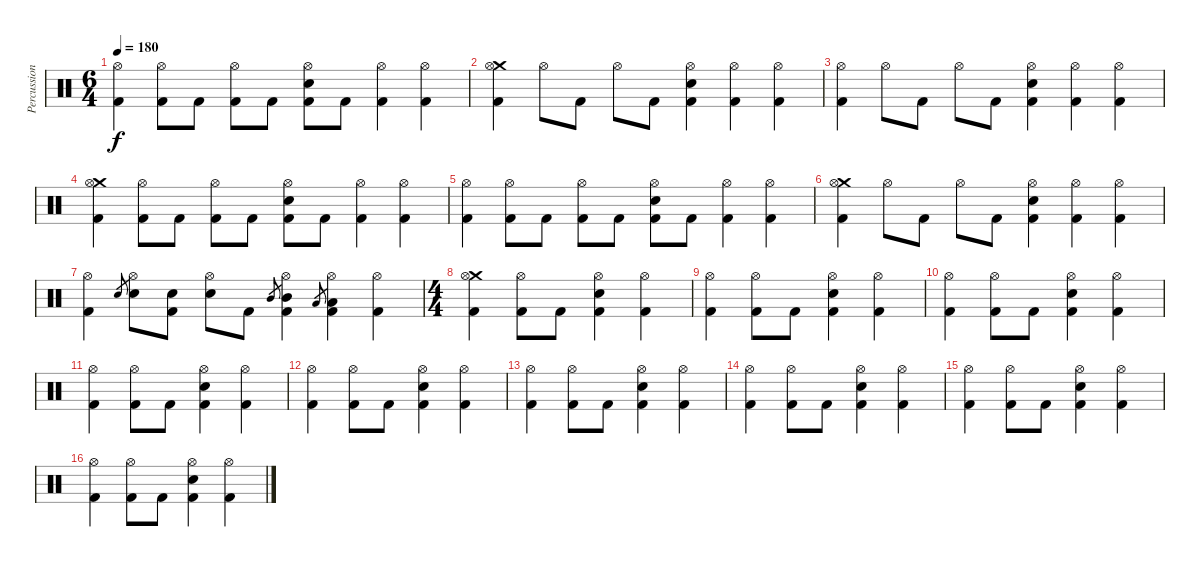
\track ("Percussion" "Percussion") {instrument percussion}
\staff {score}
\articulation defaults
\ts (6 4)
\tempo 180
\clef neutral
\ks c
("Hi-Hat (open)" "Kick (hit) 2").4{dy f} ("Hi-Hat (open)" "Kick (hit) 2").8 "Kick (hit) 2".8 ("Hi-Hat (open)" "Kick (hit) 2").8 "Kick (hit) 2".8 ("Hi-Hat (open)" "Electric Snare (hit)" "Kick (hit) 2").8 "Kick (hit) 2".8 ("Hi-Hat (open)" "Kick (hit) 2").4 ("Hi-Hat (open)" "Kick (hit) 2").4 |
("Crash medium (hit)" "Hi-Hat (open)" "Kick (hit) 2").4 "Hi-Hat (open)".8 "Kick (hit) 2".8 "Hi-Hat (open)".8 "Kick (hit) 2".8 ("Hi-Hat (open)" "Electric Snare (hit)" "Kick (hit) 2").4 ("Hi-Hat (open)" "Kick (hit) 2").4 ("Hi-Hat (open)" "Kick (hit) 2").4 |
("Hi-Hat (open)" "Kick (hit) 2").4 "Hi-Hat (open)".8 "Kick (hit) 2".8 "Hi-Hat (open)".8 "Kick (hit) 2".8 ("Hi-Hat (open)" "Electric Snare (hit)" "Kick (hit) 2").4 ("Hi-Hat (open)" "Kick (hit) 2").4 ("Hi-Hat (open)" "Kick (hit) 2").4 |
("Crash medium (hit)" "Hi-Hat (open)" "Kick (hit) 2").4 ("Hi-Hat (open)" "Kick (hit) 2").8 "Kick (hit) 2".8 ("Hi-Hat (open)" "Kick (hit) 2").8 "Kick (hit) 2".8 ("Hi-Hat (open)" "Electric Snare (hit)" "Kick (hit) 2").8 "Kick (hit) 2".8 ("Hi-Hat (open)" "Kick (hit) 2").4 ("Hi-Hat (open)" "Kick (hit) 2").4 |
("Hi-Hat (open)" "Kick (hit) 2").4 ("Hi-Hat (open)" "Kick (hit) 2").8 "Kick (hit) 2".8 ("Hi-Hat (open)" "Kick (hit) 2").8 "Kick (hit) 2".8 ("Hi-Hat (open)" "Electric Snare (hit)" "Kick (hit) 2").8 "Kick (hit) 2".8 ("Hi-Hat (open)" "Kick (hit) 2").4 ("Hi-Hat (open)" "Kick (hit) 2").4 |
("Crash medium (hit)" "Hi-Hat (open)" "Kick (hit) 2").4 "Hi-Hat (open)".8 "Kick (hit) 2".8 "Hi-Hat (open)".8 "Kick (hit) 2".8 ("Hi-Hat (open)" "Electric Snare (hit)" "Kick (hit) 2").4 ("Hi-Hat (open)" "Kick (hit) 2").4 ("Hi-Hat (open)" "Kick (hit) 2").4 |
("Hi-Hat (open)" "Kick (hit) 2").4 "Electric Snare (hit)".8{gr} ("Hi-Hat (open)" "Electric Snare (hit)").8 ("Electric Snare (hit)" "Kick (hit) 2").8 ("Hi-Hat (open)" "Electric Snare (hit)").8 "Kick (hit) 2".8 "Mid Tom (hit)".8{gr} ("Hi-Hat (open)" "Mid Tom (hit)" "Kick (hit) 2").4 "Low Tom (hit)".8{gr} ("Hi-Hat (open)" "Low Tom (hit)" "Kick (hit) 2").4 ("Hi-Hat (open)" "Kick (hit) 2").4 |
\ts (4 4)
("Crash medium (hit)" "Hi-Hat (open)" "Kick (hit) 2").4 ("Hi-Hat (open)" "Kick (hit) 2").8 "Kick (hit) 2".8 ("Hi-Hat (open)" "Electric Snare (hit)" "Kick (hit) 2").4 ("Hi-Hat (open)" "Kick (hit) 2").4 |
("Hi-Hat (open)" "Kick (hit) 2").4 ("Hi-Hat (open)" "Kick (hit) 2").8 "Kick (hit) 2".8 ("Hi-Hat (open)" "Electric Snare (hit)" "Kick (hit) 2").4 ("Hi-Hat (open)" "Kick (hit) 2").4 |
("Hi-Hat (open)" "Kick (hit) 2").4 ("Hi-Hat (open)" "Kick (hit) 2").8 "Kick (hit) 2".8 ("Hi-Hat (open)" "Electric Snare (hit)" "Kick (hit) 2").4 ("Hi-Hat (open)" "Kick (hit) 2").4 |
("Hi-Hat (open)" "Kick (hit) 2").4 ("Hi-Hat (open)" "Kick (hit) 2").8 "Kick (hit) 2".8 ("Hi-Hat (open)" "Electric Snare (hit)" "Kick (hit) 2").4 ("Hi-Hat (open)" "Kick (hit) 2").4 |
("Hi-Hat (open)" "Kick (hit) 2").4 ("Hi-Hat (open)" "Kick (hit) 2").8 "Kick (hit) 2".8 ("Hi-Hat (open)" "Electric Snare (hit)" "Kick (hit) 2").4 ("Hi-Hat (open)" "Kick (hit) 2").4 |
("Hi-Hat (open)" "Kick (hit) 2").4 ("Hi-Hat (open)" "Kick (hit) 2").8 "Kick (hit) 2".8 ("Hi-Hat (open)" "Electric Snare (hit)" "Kick (hit) 2").4 ("Hi-Hat (open)" "Kick (hit) 2").4 |
("Hi-Hat (open)" "Kick (hit) 2").4 ("Hi-Hat (open)" "Kick (hit) 2").8 "Kick (hit) 2".8 ("Hi-Hat (open)" "Electric Snare (hit)" "Kick (hit) 2").4 ("Hi-Hat (open)" "Kick (hit) 2").4 |
("Hi-Hat (open)" "Kick (hit) 2").4 ("Hi-Hat (open)" "Kick (hit) 2").8 "Kick (hit) 2".8 ("Hi-Hat (open)" "Electric Snare (hit)" "Kick (hit) 2").4 ("Hi-Hat (open)" "Kick (hit) 2").4 |
("Hi-Hat (open)" "Kick (hit) 2").4 ("Hi-Hat (open)" "Kick (hit) 2").8 "Kick (hit) 2".8 ("Hi-Hat (open)" "Electric Snare (hit)" "Kick (hit) 2").4 ("Hi-Hat (open)" "Kick (hit) 2").4
